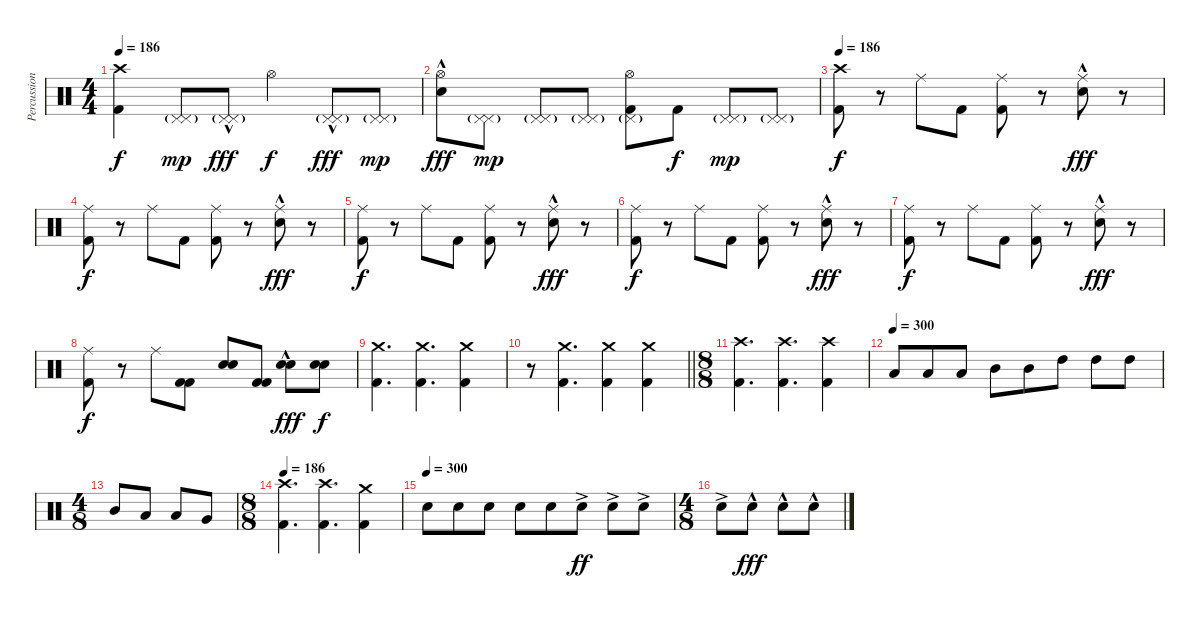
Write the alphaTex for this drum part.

\track ("Percussion" "Percussion") {instrument percussion}
\staff {score}
\articulation defaults
\ts (4 4)
\tempo 186
\clef neutral
\ks c
("Crash high (hit)" "Kick (hit) 2").4{dy f} ("Pedal Hi-Hat (hit)"{g} "Pedal Hi-Hat (hit)").8{dy mp} ("Pedal Hi-Hat (hit)"{g} "Pedal Hi-Hat (hit)"{hac}).8{dy fff} "Hi-Hat (open)".4{dy f} ("Pedal Hi-Hat (hit)"{g} "Pedal Hi-Hat (hit)"{hac}).8{dy fff} ("Pedal Hi-Hat (hit)"{g} "Pedal Hi-Hat (hit)").8{dy mp} |
("Hi-Hat (open)" "Electric Snare (hit)"{hac}).8{dy fff} ("Pedal Hi-Hat (hit)"{g} "Pedal Hi-Hat (hit)").8{dy mp} ("Pedal Hi-Hat (hit)"{g} "Pedal Hi-Hat (hit)").8 ("Pedal Hi-Hat (hit)"{g} "Pedal Hi-Hat (hit)").8 ("Pedal Hi-Hat (hit)"{g} "Hi-Hat (open)" "Kick (hit) 2").8 "Kick (hit) 2".8{dy f} ("Pedal Hi-Hat (hit)"{g} "Pedal Hi-Hat (hit)").8{dy mp} ("Pedal Hi-Hat (hit)"{g} "Pedal Hi-Hat (hit)").8 |
\tempo 186
("Crash high (hit)" "Kick (hit) 2").8{dy f} r.8 "Ride (middle)".8 "Kick (hit) 2".8 ("Ride (middle)" "Kick (hit) 2").8 r.8 ("Ride (middle)" "Electric Snare (hit)"{hac}).8{dy fff} r.8 |
("Ride (middle)" "Kick (hit) 2").8{dy f} r.8 "Ride (middle)".8 "Kick (hit) 2".8 ("Ride (middle)" "Kick (hit) 2").8 r.8 ("Ride (middle)" "Electric Snare (hit)"{hac}).8{dy fff} r.8 |
("Ride (middle)" "Kick (hit) 2").8{dy f} r.8 "Ride (middle)".8 "Kick (hit) 2".8 ("Ride (middle)" "Kick (hit) 2").8 r.8 ("Ride (middle)" "Electric Snare (hit)"{hac}).8{dy fff} r.8 |
("Ride (middle)" "Kick (hit) 2").8{dy f} r.8 "Ride (middle)".8 "Kick (hit) 2".8 ("Ride (middle)" "Kick (hit) 2").8 r.8 ("Ride (middle)" "Electric Snare (hit)"{hac}).8{dy fff} r.8 |
("Ride (middle)" "Kick (hit) 2").8{dy f} r.8 "Ride (middle)".8 "Kick (hit) 2".8 ("Ride (middle)" "Kick (hit) 2").8 r.8 ("Ride (middle)" "Electric Snare (hit)"{hac}).8{dy fff} r.8 |
("Ride (middle)" "Kick (hit) 2").8{dy f} r.8 "Ride (middle)".8 ("Kick (hit) 2" "Kick (hit) 2").8 ("Electric Snare (hit)" "Electric Snare (hit)").8 ("Kick (hit) 2" "Kick (hit) 2").8 ("Electric Snare (hit)" "Electric Snare (hit)"{hac}).8{dy fff} ("Electric Snare (hit)" "Electric Snare (hit)").8{dy f} |
("Crash medium (hit)" "Kick (hit) 2").4{d} ("Crash medium (hit)" "Kick (hit) 2").4{d} ("Crash medium (hit)" "Kick (hit) 2").4 |
\barLineRight lightlight
r.8 ("Crash medium (hit)" "Kick (hit) 2").4{d} ("Crash medium (hit)" "Kick (hit) 2").4 ("Crash medium (hit)" "Kick (hit) 2").4 |
\ts (8 8)
("Kick (hit) 2" "Crash high (hit)").4{d} ("Kick (hit) 2" "Crash high (hit)").4{d} ("Crash high (hit)" "Kick (hit) 2").4 |
\tempo (300)
"Low Tom (hit)".8 "Low Tom (hit)".8 "Low Tom (hit)".8 "Mid Tom (hit)".8 "Mid Tom (hit)".8 "High Tom (hit)".8 "High Tom (hit)".8 "High Tom (hit)".8 |
\ts (4 8)
"Mid Tom (hit)".8 "Low Tom (hit)".8 "Low Tom (hit)".8 "Very Low Tom (hit)".8 |
\ts (8 8)
\tempo 186
("Crash high (hit)" "Kick (hit) 2").4{d} ("Crash high (hit)" "Kick (hit) 2").4{d} ("Crash medium (hit)" "Kick (hit) 2").4 |
\tempo (300)
"Electric Snare (hit)".8 "Electric Snare (hit)".8 "Electric Snare (hit)".8 "Electric Snare (hit)".8 "Electric Snare (hit)".8 "Electric Snare (hit)"{ac}.8{dy ff} "Electric Snare (hit)"{ac}.8 "Electric Snare (hit)"{ac}.8 |
\ts (4 8)
"Electric Snare (hit)"{ac}.8 "Electric Snare (hit)"{hac}.8{dy fff} "Electric Snare (hit)"{hac}.8 "Electric Snare (hit)"{hac}.8
